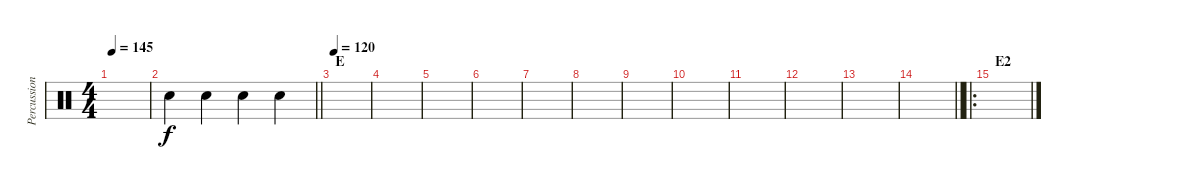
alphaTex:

\track ("Percussion" "Percussion") {instrument percussion}
\staff {score}
\articulation defaults
\ts (4 4)
\tempo 145
\clef neutral
\ks c
|
\barLineRight lightlight "Hand Clap (hit)".4 "Hand Clap (hit)".4 "Hand Clap (hit)".4 "Hand Clap (hit)".4
|
\section ("" "E")
\tempo 120
|
|
|
|
|
|
|
|
|
|
|
\barLineRight lightlight
|
\ro
\section ("" "E2")
